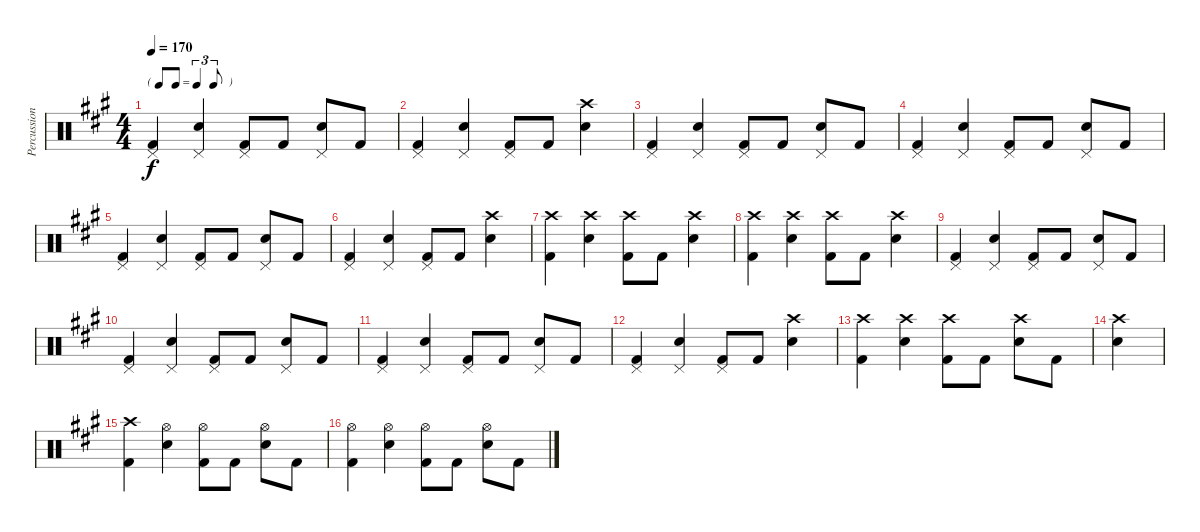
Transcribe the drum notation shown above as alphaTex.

\track ("Percussion" "Percussion") {instrument percussion}
\staff {score}
\articulation defaults
\ts (4 4)
\tf triplet8th
\tempo 170
\clef neutral
\ks a
("Pedal Hi-Hat (hit)" "Kick (hit) 2").4{dy f} ("Pedal Hi-Hat (hit)" "Electric Snare (hit)").4 ("Pedal Hi-Hat (hit)" "Kick (hit) 2").8 "Kick (hit) 2".8 ("Pedal Hi-Hat (hit)" "Electric Snare (hit)").8 "Kick (hit) 2".8 |
("Pedal Hi-Hat (hit)" "Kick (hit) 2").4 ("Pedal Hi-Hat (hit)" "Electric Snare (hit)").4 ("Pedal Hi-Hat (hit)" "Kick (hit) 2").8 "Kick (hit) 2".8 ("Crash high (hit)" "Electric Snare (hit)").4 |
("Pedal Hi-Hat (hit)" "Kick (hit) 2").4 ("Pedal Hi-Hat (hit)" "Electric Snare (hit)").4 ("Pedal Hi-Hat (hit)" "Kick (hit) 2").8 "Kick (hit) 2".8 ("Pedal Hi-Hat (hit)" "Electric Snare (hit)").8 "Kick (hit) 2".8 |
("Pedal Hi-Hat (hit)" "Kick (hit) 2").4 ("Pedal Hi-Hat (hit)" "Electric Snare (hit)").4 ("Pedal Hi-Hat (hit)" "Kick (hit) 2").8 "Kick (hit) 2".8 ("Pedal Hi-Hat (hit)" "Electric Snare (hit)").8 "Kick (hit) 2".8 |
("Pedal Hi-Hat (hit)" "Kick (hit) 2").4 ("Pedal Hi-Hat (hit)" "Electric Snare (hit)").4 ("Pedal Hi-Hat (hit)" "Kick (hit) 2").8 "Kick (hit) 2".8 ("Pedal Hi-Hat (hit)" "Electric Snare (hit)").8 "Kick (hit) 2".8 |
("Pedal Hi-Hat (hit)" "Kick (hit) 2").4 ("Pedal Hi-Hat (hit)" "Electric Snare (hit)").4 ("Pedal Hi-Hat (hit)" "Kick (hit) 2").8 "Kick (hit) 2".8 ("Crash high (hit)" "Electric Snare (hit)").4 |
("Crash high (hit)" "Kick (hit) 2").4 ("Crash high (hit)" "Electric Snare (hit)").4 ("Crash high (hit)" "Kick (hit) 2").8 "Kick (hit) 2".8 ("Crash high (hit)" "Electric Snare (hit)").4 |
("Crash high (hit)" "Kick (hit) 2").4 ("Crash high (hit)" "Electric Snare (hit)").4 ("Crash high (hit)" "Kick (hit) 2").8 "Kick (hit) 2".8 ("Crash high (hit)" "Electric Snare (hit)").4 |
("Pedal Hi-Hat (hit)" "Kick (hit) 2").4 ("Pedal Hi-Hat (hit)" "Electric Snare (hit)").4 ("Pedal Hi-Hat (hit)" "Kick (hit) 2").8 "Kick (hit) 2".8 ("Pedal Hi-Hat (hit)" "Electric Snare (hit)").8 "Kick (hit) 2".8 |
("Pedal Hi-Hat (hit)" "Kick (hit) 2").4 ("Pedal Hi-Hat (hit)" "Electric Snare (hit)").4 ("Pedal Hi-Hat (hit)" "Kick (hit) 2").8 "Kick (hit) 2".8 ("Pedal Hi-Hat (hit)" "Electric Snare (hit)").8 "Kick (hit) 2".8 |
("Pedal Hi-Hat (hit)" "Kick (hit) 2").4 ("Pedal Hi-Hat (hit)" "Electric Snare (hit)").4 ("Pedal Hi-Hat (hit)" "Kick (hit) 2").8 "Kick (hit) 2".8 ("Pedal Hi-Hat (hit)" "Electric Snare (hit)").8 "Kick (hit) 2".8 |
("Pedal Hi-Hat (hit)" "Kick (hit) 2").4 ("Pedal Hi-Hat (hit)" "Electric Snare (hit)").4 ("Pedal Hi-Hat (hit)" "Kick (hit) 2").8 "Kick (hit) 2".8 ("Crash high (hit)" "Electric Snare (hit)").4 |
("Crash high (hit)" "Kick (hit) 2").4 ("Crash high (hit)" "Electric Snare (hit)").4 ("Crash high (hit)" "Kick (hit) 2").8 "Kick (hit) 2".8 ("Crash high (hit)" "Electric Snare (hit)").8 "Kick (hit) 2".8 |
("Crash high (hit)" "Electric Snare (hit)").4 |
("Crash high (hit)" "Kick (hit) 2").4 ("Hi-Hat (open)" "Electric Snare (hit)").4 ("Hi-Hat (open)" "Kick (hit) 2").8 "Kick (hit) 2".8 ("Hi-Hat (open)" "Electric Snare (hit)").8 "Kick (hit) 2".8 |
("Hi-Hat (open)" "Kick (hit) 2").4 ("Hi-Hat (open)" "Electric Snare (hit)").4 ("Hi-Hat (open)" "Kick (hit) 2").8 "Kick (hit) 2".8 ("Hi-Hat (open)" "Electric Snare (hit)").8 "Kick (hit) 2".8
